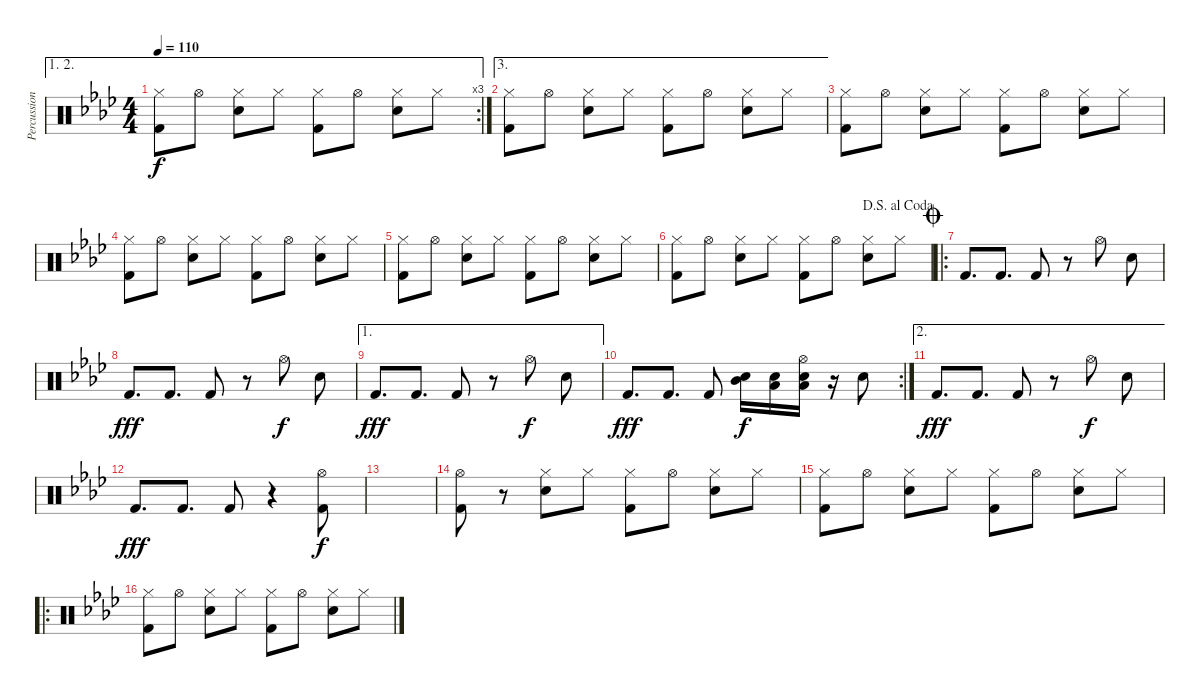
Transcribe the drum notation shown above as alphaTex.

\track ("Percussions" "Percussion") {instrument percussion}
\staff {score}
\articulation defaults
\ae (1 2)
\rc 3
\ts (4 4)
\tempo 110
\clef neutral
\ks ab
("Hi-Hat (closed)" "Kick (hit) 2").8{dy f} "Hi-Hat (open)".8 ("Hi-Hat (closed)" "Electric Snare (hit)").8 "Hi-Hat (closed)".8 ("Hi-Hat (closed)" "Kick (hit) 2").8 "Hi-Hat (open)".8 ("Hi-Hat (closed)" "Electric Snare (hit)").8 "Hi-Hat (closed)".8 |
\ae 3
("Kick (hit) 2" "Hi-Hat (closed)").8 "Hi-Hat (open)".8 ("Hi-Hat (closed)" "Electric Snare (hit)").8 "Hi-Hat (closed)".8 ("Hi-Hat (closed)" "Kick (hit) 2").8 "Hi-Hat (open)".8 ("Hi-Hat (closed)" "Electric Snare (hit)").8 "Hi-Hat (closed)".8 |
("Hi-Hat (closed)" "Kick (hit) 2").8 "Hi-Hat (open)".8 ("Hi-Hat (closed)" "Electric Snare (hit)").8 "Hi-Hat (closed)".8 ("Hi-Hat (closed)" "Kick (hit) 2").8 "Hi-Hat (open)".8 ("Hi-Hat (closed)" "Electric Snare (hit)").8 "Hi-Hat (closed)".8 |
("Hi-Hat (closed)" "Kick (hit) 2").8 "Hi-Hat (open)".8 ("Hi-Hat (closed)" "Electric Snare (hit)").8 "Hi-Hat (closed)".8 ("Hi-Hat (closed)" "Kick (hit) 2").8 "Hi-Hat (open)".8 ("Hi-Hat (closed)" "Electric Snare (hit)").8 "Hi-Hat (closed)".8 |
("Hi-Hat (closed)" "Kick (hit) 2").8 "Hi-Hat (open)".8 ("Hi-Hat (closed)" "Electric Snare (hit)").8 "Hi-Hat (closed)".8 ("Hi-Hat (closed)" "Kick (hit) 2").8 "Hi-Hat (open)".8 ("Hi-Hat (closed)" "Electric Snare (hit)").8 "Hi-Hat (closed)".8 |
\jump dalsegnoalcoda
("Hi-Hat (closed)" "Kick (hit) 2").8 "Hi-Hat (open)".8 ("Hi-Hat (closed)" "Electric Snare (hit)").8 "Hi-Hat (closed)".8 ("Hi-Hat (closed)" "Kick (hit) 2").8 "Hi-Hat (open)".8 ("Hi-Hat (closed)" "Electric Snare (hit)").8 "Hi-Hat (closed)".8 |
\ro
\jump coda "Kick (hit) 2".8{d} "Kick (hit) 2".8{d} "Kick (hit) 2".8
r.8 "Hi-Hat (open)".8 "Electric Snare (hit)".8 |
"Kick (hit) 2".8{d dy fff} "Kick (hit) 2".8{d} "Kick (hit) 2".8 r.8 "Hi-Hat (open)".8{dy f} "Electric Snare (hit)".8 |
\ae 1 "Kick (hit) 2".8{d dy fff} "Kick (hit) 2".8{d} "Kick (hit) 2".8
r.8 "Hi-Hat (open)".8{dy f} "Electric Snare (hit)".8 |
\rc 2 "Kick (hit) 2".8{d dy fff} "Kick (hit) 2".8{d} "Kick (hit) 2".8
("Mid Tom (hit)" "Electric Snare (hit)").16{dy f} ("Low Tom (hit)" "Electric Snare (hit)").16 ("Low Floor Tom (hit)" "Electric Snare (hit)" "Hi-Hat (open)").16 r.16 "Electric Snare (hit)".8 |
\ae 2 "Kick (hit) 2".8{d dy fff} "Kick (hit) 2".8{d} "Kick (hit) 2".8
r.8 "Hi-Hat (open)".8{dy f} "Electric Snare (hit)".8 |
"Kick (hit) 2".8{d dy fff} "Kick (hit) 2".8{d} "Kick (hit) 2".8 r.4 ("Hi-Hat (open)" "Kick (hit) 2").8{dy f} |
|
("Hi-Hat (open)" "Kick (hit) 2").8 r.8 ("Hi-Hat (closed)" "Electric Snare (hit)").8 "Hi-Hat (closed)".8 ("Hi-Hat (closed)" "Kick (hit) 2").8 "Hi-Hat (open)".8 ("Hi-Hat (closed)" "Electric Snare (hit)").8 "Hi-Hat (closed)".8 |
("Hi-Hat (closed)" "Kick (hit) 2").8 "Hi-Hat (open)".8 ("Hi-Hat (closed)" "Electric Snare (hit)").8 "Hi-Hat (closed)".8 ("Hi-Hat (closed)" "Kick (hit) 2").8 "Hi-Hat (open)".8 ("Hi-Hat (closed)" "Electric Snare (hit)").8 "Hi-Hat (closed)".8 |
\ro
("Hi-Hat (closed)" "Kick (hit) 2").8 "Hi-Hat (open)".8 ("Hi-Hat (closed)" "Electric Snare (hit)").8 "Hi-Hat (closed)".8 ("Hi-Hat (closed)" "Kick (hit) 2").8 "Hi-Hat (open)".8 ("Hi-Hat (closed)" "Electric Snare (hit)").8 "Hi-Hat (closed)".8
